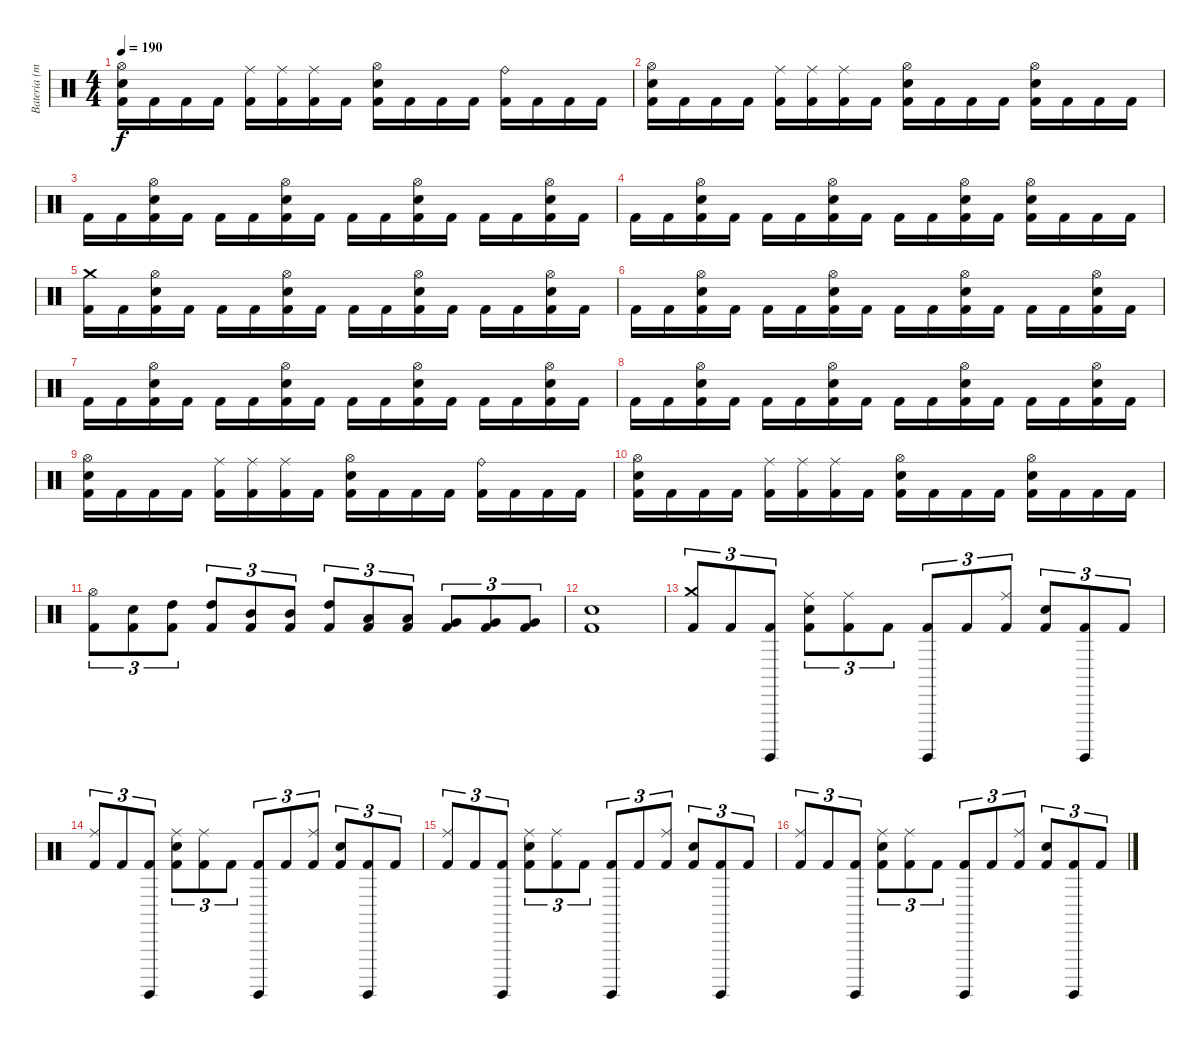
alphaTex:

\track ("Bateria (mestre Aquiles Priester)" "Bateria (m") {instrument percussion}
\staff {score}
\articulation defaults
\ts (4 4)
\tempo 190
\clef neutral
\ks c
("Kick (hit) 2" "Electric Snare (hit)" "Hi-Hat (open)").16{dy f} "Kick (hit) 2".16 "Kick (hit) 2".16 "Kick (hit) 2".16 ("Kick (hit) 2" "Ride (middle)").16 ("Kick (hit) 2" "Ride (middle)").16 ("Kick (hit) 2" "Ride (middle)").16 "Kick (hit) 2".16 ("Kick (hit) 2" "Electric Snare (hit)" "Hi-Hat (open)").16 "Kick (hit) 2".16 "Kick (hit) 2".16 "Kick (hit) 2".16 ("Kick (hit) 2" "Ride (bell)").16 "Kick (hit) 2".16 "Kick (hit) 2".16 "Kick (hit) 2".16 |
("Kick (hit) 2" "Electric Snare (hit)" "Hi-Hat (open)").16 "Kick (hit) 2".16 "Kick (hit) 2".16 "Kick (hit) 2".16 ("Kick (hit) 2" "Ride (middle)").16 ("Kick (hit) 2" "Ride (middle)").16 ("Kick (hit) 2" "Ride (middle)").16 "Kick (hit) 2".16 ("Kick (hit) 2" "Electric Snare (hit)" "Hi-Hat (open)").16 "Kick (hit) 2".16 "Kick (hit) 2".16 "Kick (hit) 2".16 ("Kick (hit) 2" "Electric Snare (hit)" "Hi-Hat (open)").16 "Kick (hit) 2".16 "Kick (hit) 2".16 "Kick (hit) 2".16 |
"Kick (hit) 2".16 "Kick (hit) 2".16 ("Kick (hit) 2" "Electric Snare (hit)" "Hi-Hat (open)").16 "Kick (hit) 2".16 "Kick (hit) 2".16 "Kick (hit) 2".16 ("Kick (hit) 2" "Electric Snare (hit)" "Hi-Hat (open)").16 "Kick (hit) 2".16 "Kick (hit) 2".16 "Kick (hit) 2".16 ("Kick (hit) 2" "Electric Snare (hit)" "Hi-Hat (open)").16 "Kick (hit) 2".16 "Kick (hit) 2".16 "Kick (hit) 2".16 ("Kick (hit) 2" "Electric Snare (hit)" "Hi-Hat (open)").16 "Kick (hit) 2".16 |
"Kick (hit) 2".16 "Kick (hit) 2".16 ("Kick (hit) 2" "Electric Snare (hit)" "Hi-Hat (open)").16 "Kick (hit) 2".16 "Kick (hit) 2".16 "Kick (hit) 2".16 ("Kick (hit) 2" "Electric Snare (hit)" "Hi-Hat (open)").16 "Kick (hit) 2".16 "Kick (hit) 2".16 "Kick (hit) 2".16 ("Kick (hit) 2" "Electric Snare (hit)" "Hi-Hat (open)").16 "Kick (hit) 2".16 ("Kick (hit) 2" "Electric Snare (hit)" "Hi-Hat (open)").16 "Kick (hit) 2".16 "Kick (hit) 2".16 "Kick (hit) 2".16 |
("Kick (hit) 2" "Crash medium (hit)").16 "Kick (hit) 2".16 ("Kick (hit) 2" "Electric Snare (hit)" "Hi-Hat (open)").16 "Kick (hit) 2".16 "Kick (hit) 2".16 "Kick (hit) 2".16 ("Kick (hit) 2" "Electric Snare (hit)" "Hi-Hat (open)").16 "Kick (hit) 2".16 "Kick (hit) 2".16 "Kick (hit) 2".16 ("Kick (hit) 2" "Electric Snare (hit)" "Hi-Hat (open)").16 "Kick (hit) 2".16 "Kick (hit) 2".16 "Kick (hit) 2".16 ("Kick (hit) 2" "Electric Snare (hit)" "Hi-Hat (open)").16 "Kick (hit) 2".16 |
"Kick (hit) 2".16 "Kick (hit) 2".16 ("Kick (hit) 2" "Electric Snare (hit)" "Hi-Hat (open)").16 "Kick (hit) 2".16 "Kick (hit) 2".16 "Kick (hit) 2".16 ("Kick (hit) 2" "Electric Snare (hit)" "Hi-Hat (open)").16 "Kick (hit) 2".16 "Kick (hit) 2".16 "Kick (hit) 2".16 ("Kick (hit) 2" "Electric Snare (hit)" "Hi-Hat (open)").16 "Kick (hit) 2".16 "Kick (hit) 2".16 "Kick (hit) 2".16 ("Kick (hit) 2" "Electric Snare (hit)" "Hi-Hat (open)").16 "Kick (hit) 2".16 |
"Kick (hit) 2".16 "Kick (hit) 2".16 ("Kick (hit) 2" "Electric Snare (hit)" "Hi-Hat (open)").16 "Kick (hit) 2".16 "Kick (hit) 2".16 "Kick (hit) 2".16 ("Kick (hit) 2" "Electric Snare (hit)" "Hi-Hat (open)").16 "Kick (hit) 2".16 "Kick (hit) 2".16 "Kick (hit) 2".16 ("Kick (hit) 2" "Electric Snare (hit)" "Hi-Hat (open)").16 "Kick (hit) 2".16 "Kick (hit) 2".16 "Kick (hit) 2".16 ("Kick (hit) 2" "Electric Snare (hit)" "Hi-Hat (open)").16 "Kick (hit) 2".16 |
"Kick (hit) 2".16 "Kick (hit) 2".16 ("Kick (hit) 2" "Electric Snare (hit)" "Hi-Hat (open)").16 "Kick (hit) 2".16 "Kick (hit) 2".16 "Kick (hit) 2".16 ("Kick (hit) 2" "Electric Snare (hit)" "Hi-Hat (open)").16 "Kick (hit) 2".16 "Kick (hit) 2".16 "Kick (hit) 2".16 ("Kick (hit) 2" "Electric Snare (hit)" "Hi-Hat (open)").16 "Kick (hit) 2".16 "Kick (hit) 2".16 "Kick (hit) 2".16 ("Kick (hit) 2" "Electric Snare (hit)" "Hi-Hat (open)").16 "Kick (hit) 2".16 |
("Kick (hit) 2" "Electric Snare (hit)" "Hi-Hat (open)").16 "Kick (hit) 2".16 "Kick (hit) 2".16 "Kick (hit) 2".16 ("Kick (hit) 2" "Ride (middle)").16 ("Kick (hit) 2" "Ride (middle)").16 ("Kick (hit) 2" "Ride (middle)").16 "Kick (hit) 2".16 ("Kick (hit) 2" "Electric Snare (hit)" "Hi-Hat (open)").16 "Kick (hit) 2".16 "Kick (hit) 2".16 "Kick (hit) 2".16 ("Kick (hit) 2" "Ride (bell)").16 "Kick (hit) 2".16 "Kick (hit) 2".16 "Kick (hit) 2".16 |
("Kick (hit) 2" "Electric Snare (hit)" "Hi-Hat (open)").16 "Kick (hit) 2".16 "Kick (hit) 2".16 "Kick (hit) 2".16 ("Kick (hit) 2" "Ride (middle)").16 ("Kick (hit) 2" "Ride (middle)").16 ("Kick (hit) 2" "Ride (middle)").16 "Kick (hit) 2".16 ("Kick (hit) 2" "Electric Snare (hit)" "Hi-Hat (open)").16 "Kick (hit) 2".16 "Kick (hit) 2".16 "Kick (hit) 2".16 ("Kick (hit) 2" "Electric Snare (hit)" "Hi-Hat (open)").16 "Kick (hit) 2".16 "Kick (hit) 2".16 "Kick (hit) 2".16 |
("Kick (hit) 2" "Hi-Hat (open)").8{tu (3 2)} ("Kick (hit) 2" "Electric Snare (hit)").8{tu (3 2)} ("Kick (hit) 2" "High Tom (hit)").8{tu (3 2)} ("Kick (hit) 2" "High Tom (hit)").8{tu (3 2)} ("Kick (hit) 2" "Mid Tom (hit)").8{tu (3 2)} ("Kick (hit) 2" "Mid Tom (hit)").8{tu (3 2)} ("Kick (hit) 2" "High Tom (hit)").8{tu (3 2)} ("Kick (hit) 2" "Low Tom (hit)").8{tu (3 2)} ("Kick (hit) 2" "Low Tom (hit)").8{tu (3 2)} ("Kick (hit) 2" "Very Low Tom (hit)").8{tu (3 2)} ("Kick (hit) 2" "Very Low Tom (hit)").8{tu (3 2)} ("Kick (hit) 2" "Very Low Tom (hit)").8{tu (3 2)} |
("Kick (hit) 2" "Electric Snare (hit)").1 |
("Kick (hit) 2" "Crash medium (hit)").8{tu (3 2)} "Kick (hit) 2".8{tu (3 2)} ("Kick (hit) 2" "Surdo (hit)").8{tu (3 2)} ("Kick (hit) 2" "Electric Snare (hit)" "Ride (middle)").8{tu (3 2)} ("Kick (hit) 2" "Ride (middle)").8{tu (3 2)} "Kick (hit) 2".8{tu (3 2)} ("Kick (hit) 2" "Surdo (hit)").8{tu (3 2)} "Kick (hit) 2".8{tu (3 2)} ("Kick (hit) 2" "Ride (middle)").8{tu (3 2)} ("Kick (hit) 2" "Electric Snare (hit)").8{tu (3 2)} ("Kick (hit) 2" "Surdo (hit)").8{tu (3 2)} "Kick (hit) 2".8{tu (3 2)} |
("Kick (hit) 2" "Ride (middle)").8{tu (3 2)} "Kick (hit) 2".8{tu (3 2)} ("Kick (hit) 2" "Surdo (hit)").8{tu (3 2)} ("Kick (hit) 2" "Electric Snare (hit)" "Ride (middle)").8{tu (3 2)} ("Kick (hit) 2" "Ride (middle)").8{tu (3 2)} "Kick (hit) 2".8{tu (3 2)} ("Kick (hit) 2" "Surdo (hit)").8{tu (3 2)} "Kick (hit) 2".8{tu (3 2)} ("Kick (hit) 2" "Ride (middle)").8{tu (3 2)} ("Kick (hit) 2" "Electric Snare (hit)").8{tu (3 2)} ("Kick (hit) 2" "Surdo (hit)").8{tu (3 2)} "Kick (hit) 2".8{tu (3 2)} |
("Kick (hit) 2" "Ride (middle)").8{tu (3 2)} "Kick (hit) 2".8{tu (3 2)} ("Kick (hit) 2" "Surdo (hit)").8{tu (3 2)} ("Kick (hit) 2" "Electric Snare (hit)" "Ride (middle)").8{tu (3 2)} ("Kick (hit) 2" "Ride (middle)").8{tu (3 2)} "Kick (hit) 2".8{tu (3 2)} ("Kick (hit) 2" "Surdo (hit)").8{tu (3 2)} "Kick (hit) 2".8{tu (3 2)} ("Kick (hit) 2" "Ride (middle)").8{tu (3 2)} ("Kick (hit) 2" "Electric Snare (hit)").8{tu (3 2)} ("Kick (hit) 2" "Surdo (hit)").8{tu (3 2)} "Kick (hit) 2".8{tu (3 2)} |
("Kick (hit) 2" "Ride (middle)").8{tu (3 2)} "Kick (hit) 2".8{tu (3 2)} ("Kick (hit) 2" "Surdo (hit)").8{tu (3 2)} ("Kick (hit) 2" "Electric Snare (hit)" "Ride (middle)").8{tu (3 2)} ("Kick (hit) 2" "Ride (middle)").8{tu (3 2)} "Kick (hit) 2".8{tu (3 2)} ("Kick (hit) 2" "Surdo (hit)").8{tu (3 2)} "Kick (hit) 2".8{tu (3 2)} ("Kick (hit) 2" "Ride (middle)").8{tu (3 2)} ("Kick (hit) 2" "Electric Snare (hit)").8{tu (3 2)} ("Kick (hit) 2" "Surdo (hit)").8{tu (3 2)} "Kick (hit) 2".8{tu (3 2)}
